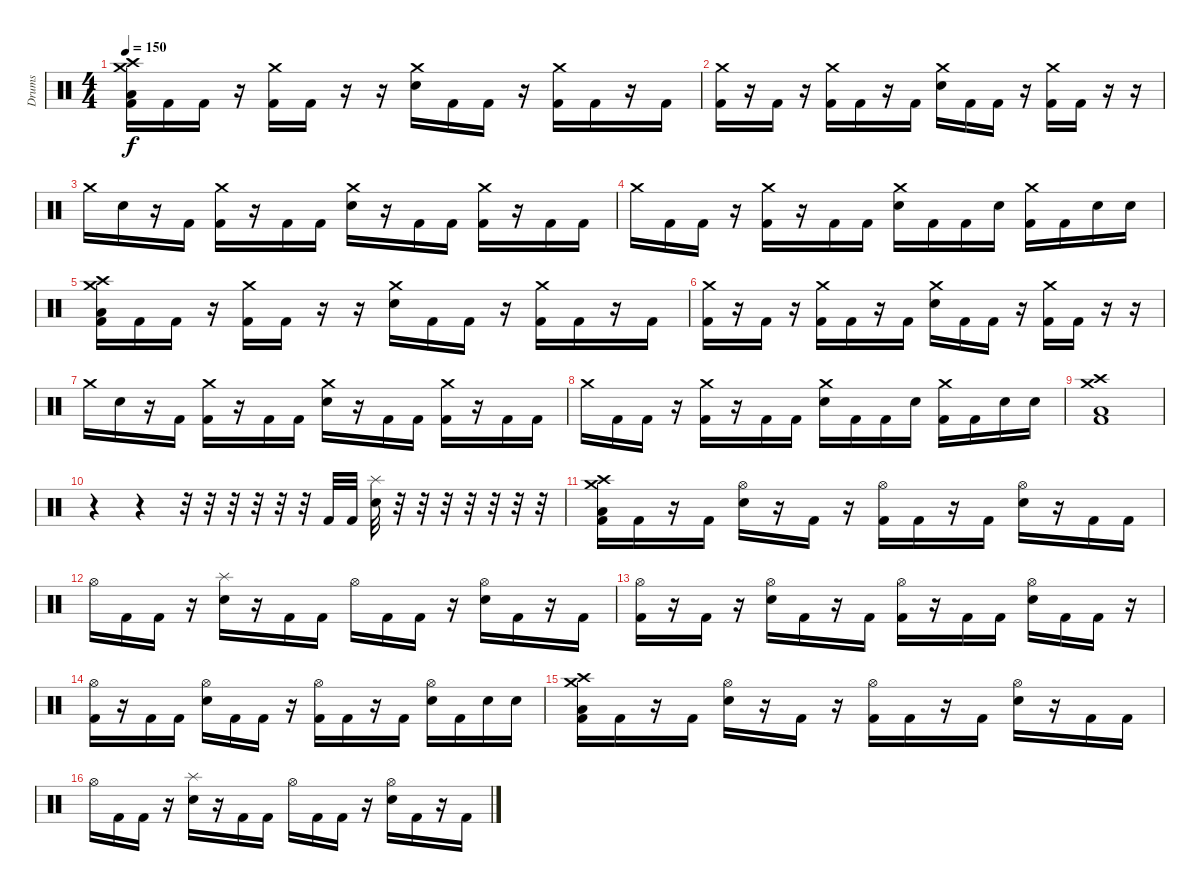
\track ("Drums" "Drums") {instrument percussion}
\staff {score}
\articulation defaults
\ts (4 4)
\tempo 150
\clef neutral
\ks c
("Crash high (hit)" "Crash medium (hit)" "Low Floor Tom (hit)" "Kick (hit) 2").16{dy f} "Kick (hit) 2".16 "Kick (hit) 2".16 r.16 ("Crash medium (hit)" "Kick (hit) 2").16 "Kick (hit) 2".16 r.16 r.16 ("Crash medium (hit)" "Electric Snare (hit)").16 "Kick (hit) 2".16 "Kick (hit) 2".16 r.16 ("Crash medium (hit)" "Kick (hit) 2").16 "Kick (hit) 2".16 r.16 "Kick (hit) 2".16 |
("Crash medium (hit)" "Kick (hit) 2").16 r.16 "Kick (hit) 2".16 r.16 ("Crash medium (hit)" "Kick (hit) 2").16 "Kick (hit) 2".16 r.16 "Kick (hit) 2".16 ("Crash medium (hit)" "Electric Snare (hit)").16 "Kick (hit) 2".16 "Kick (hit) 2".16 r.16 ("Crash medium (hit)" "Kick (hit) 2").16 "Kick (hit) 2".16 r.16 r.16 |
"Crash medium (hit)".16 "Electric Snare (hit)".16 r.16 "Kick (hit) 2".16 ("Crash medium (hit)" "Kick (hit) 2").16 r.16 "Kick (hit) 2".16 "Kick (hit) 2".16 ("Crash medium (hit)" "Electric Snare (hit)").16 r.16 "Kick (hit) 2".16 "Kick (hit) 2".16 ("Crash medium (hit)" "Kick (hit) 2").16 r.16 "Kick (hit) 2".16 "Kick (hit) 2".16 |
"Crash medium (hit)".16 "Kick (hit) 2".16 "Kick (hit) 2".16 r.16 ("Crash medium (hit)" "Kick (hit) 2").16 r.16 "Kick (hit) 2".16 "Kick (hit) 2".16 ("Crash medium (hit)" "Electric Snare (hit)").16 "Kick (hit) 2".16 "Kick (hit) 2".16 "Electric Snare (hit)".16 ("Crash medium (hit)" "Kick (hit) 2").16 "Kick (hit) 2".16 "Electric Snare (hit)".16 "Electric Snare (hit)".16 |
("Crash high (hit)" "Crash medium (hit)" "Low Floor Tom (hit)" "Kick (hit) 2").16 "Kick (hit) 2".16 "Kick (hit) 2".16 r.16 ("Crash medium (hit)" "Kick (hit) 2").16 "Kick (hit) 2".16 r.16 r.16 ("Crash medium (hit)" "Electric Snare (hit)").16 "Kick (hit) 2".16 "Kick (hit) 2".16 r.16 ("Crash medium (hit)" "Kick (hit) 2").16 "Kick (hit) 2".16 r.16 "Kick (hit) 2".16 |
("Crash medium (hit)" "Kick (hit) 2").16 r.16 "Kick (hit) 2".16 r.16 ("Crash medium (hit)" "Kick (hit) 2").16 "Kick (hit) 2".16 r.16 "Kick (hit) 2".16 ("Crash medium (hit)" "Electric Snare (hit)").16 "Kick (hit) 2".16 "Kick (hit) 2".16 r.16 ("Crash medium (hit)" "Kick (hit) 2").16 "Kick (hit) 2".16 r.16 r.16 |
"Crash medium (hit)".16 "Electric Snare (hit)".16 r.16 "Kick (hit) 2".16 ("Crash medium (hit)" "Kick (hit) 2").16 r.16 "Kick (hit) 2".16 "Kick (hit) 2".16 ("Crash medium (hit)" "Electric Snare (hit)").16 r.16 "Kick (hit) 2".16 "Kick (hit) 2".16 ("Crash medium (hit)" "Kick (hit) 2").16 r.16 "Kick (hit) 2".16 "Kick (hit) 2".16 |
"Crash medium (hit)".16 "Kick (hit) 2".16 "Kick (hit) 2".16 r.16 ("Crash medium (hit)" "Kick (hit) 2").16 r.16 "Kick (hit) 2".16 "Kick (hit) 2".16 ("Crash medium (hit)" "Electric Snare (hit)").16 "Kick (hit) 2".16 "Kick (hit) 2".16 "Electric Snare (hit)".16 ("Crash medium (hit)" "Kick (hit) 2").16 "Kick (hit) 2".16 "Electric Snare (hit)".16 "Electric Snare (hit)".16 |
("Crash high (hit)" "Crash medium (hit)" "Low Floor Tom (hit)" "Kick (hit) 2").1 |
r.4 r.4 r.32 r.32 r.32 r.32 r.32 r.32 "Kick (hit) 2".32 "Kick (hit) 2".32 ("Splash (hit)" "Electric Snare (hit)").32 r.32 r.32 r.32 r.32 r.32 r.32 r.32 |
("Crash high (hit)" "Crash medium (hit)" "Low Floor Tom (hit)" "Kick (hit) 2").16 "Kick (hit) 2".16 r.16 "Kick (hit) 2".16 ("Hi-Hat (open)" "Electric Snare (hit)").16 r.16 "Kick (hit) 2".16 r.16 ("Hi-Hat (open)" "Kick (hit) 2").16 "Kick (hit) 2".16 r.16 "Kick (hit) 2".16 ("Hi-Hat (open)" "Electric Snare (hit)").16 r.16 "Kick (hit) 2".16 "Kick (hit) 2".16 |
"Hi-Hat (open)".16 "Kick (hit) 2".16 "Kick (hit) 2".16 r.16 ("Splash (hit)" "Electric Snare (hit)").16 r.16 "Kick (hit) 2".16 "Kick (hit) 2".16 "Hi-Hat (open)".16 "Kick (hit) 2".16 "Kick (hit) 2".16 r.16 ("Hi-Hat (open)" "Electric Snare (hit)").16 "Kick (hit) 2".16 r.16 "Kick (hit) 2".16 |
("Hi-Hat (open)" "Kick (hit) 2").16 r.16 "Kick (hit) 2".16 r.16 ("Hi-Hat (open)" "Electric Snare (hit)").16 "Kick (hit) 2".16 r.16 "Kick (hit) 2".16 ("Hi-Hat (open)" "Kick (hit) 2").16 r.16 "Kick (hit) 2".16 "Kick (hit) 2".16 ("Hi-Hat (open)" "Electric Snare (hit)").16 "Kick (hit) 2".16 "Kick (hit) 2".16 r.16 |
("Hi-Hat (open)" "Kick (hit) 2").16 r.16 "Kick (hit) 2".16 "Kick (hit) 2".16 ("Hi-Hat (open)" "Electric Snare (hit)").16 "Kick (hit) 2".16 "Kick (hit) 2".16 r.16 ("Hi-Hat (open)" "Kick (hit) 2").16 "Kick (hit) 2".16 r.16 "Kick (hit) 2".16 ("Hi-Hat (open)" "Electric Snare (hit)").16 "Kick (hit) 2".16 "Electric Snare (hit)".16 "Electric Snare (hit)".16 |
("Crash high (hit)" "Crash medium (hit)" "Low Floor Tom (hit)" "Kick (hit) 2").16 "Kick (hit) 2".16 r.16 "Kick (hit) 2".16 ("Hi-Hat (open)" "Electric Snare (hit)").16 r.16 "Kick (hit) 2".16 r.16 ("Hi-Hat (open)" "Kick (hit) 2").16 "Kick (hit) 2".16 r.16 "Kick (hit) 2".16 ("Hi-Hat (open)" "Electric Snare (hit)").16 r.16 "Kick (hit) 2".16 "Kick (hit) 2".16 |
"Hi-Hat (open)".16 "Kick (hit) 2".16 "Kick (hit) 2".16 r.16 ("Splash (hit)" "Electric Snare (hit)").16 r.16 "Kick (hit) 2".16 "Kick (hit) 2".16 "Hi-Hat (open)".16 "Kick (hit) 2".16 "Kick (hit) 2".16 r.16 ("Hi-Hat (open)" "Electric Snare (hit)").16 "Kick (hit) 2".16 r.16 "Kick (hit) 2".16
